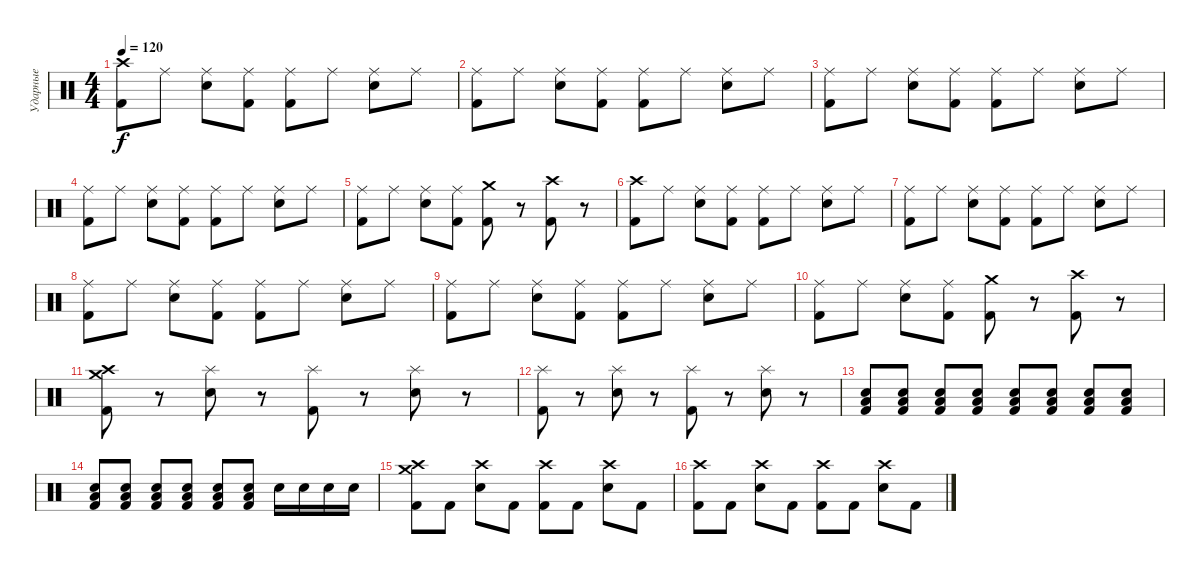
\track ("Ударные" "Ударные") {instrument percussion}
\staff {score}
\articulation defaults
\ts (4 4)
\tempo 120
\clef neutral
\ks c
("Crash high (hit)" "Kick (hit) 2").8{dy f} "Ride (middle)".8 ("Ride (middle)" "Electric Snare (hit)").8 ("Ride (middle)" "Kick (hit) 2").8 ("Ride (middle)" "Kick (hit) 2").8 "Ride (middle)".8 ("Ride (middle)" "Electric Snare (hit)").8 "Ride (middle)".8 |
("Ride (middle)" "Kick (hit) 2").8 "Ride (middle)".8 ("Ride (middle)" "Electric Snare (hit)").8 ("Ride (middle)" "Kick (hit) 2").8 ("Ride (middle)" "Kick (hit) 2").8 "Ride (middle)".8 ("Ride (middle)" "Electric Snare (hit)").8 "Ride (middle)".8 |
("Ride (middle)" "Kick (hit) 2").8 "Ride (middle)".8 ("Ride (middle)" "Electric Snare (hit)").8 ("Ride (middle)" "Kick (hit) 2").8 ("Ride (middle)" "Kick (hit) 2").8 "Ride (middle)".8 ("Ride (middle)" "Electric Snare (hit)").8 "Ride (middle)".8 |
("Ride (middle)" "Kick (hit) 2").8 "Ride (middle)".8 ("Ride (middle)" "Electric Snare (hit)").8 ("Ride (middle)" "Kick (hit) 2").8 ("Ride (middle)" "Kick (hit) 2").8 "Ride (middle)".8 ("Ride (middle)" "Electric Snare (hit)").8 "Ride (middle)".8 |
("Ride (middle)" "Kick (hit) 2").8 "Ride (middle)".8 ("Ride (middle)" "Electric Snare (hit)").8 ("Ride (middle)" "Kick (hit) 2").8 ("Crash medium (hit)" "Kick (hit) 2").8 r.8 ("Crash high (hit)" "Kick (hit) 2").8 r.8 |
("Crash high (hit)" "Kick (hit) 2").8 "Ride (middle)".8 ("Ride (middle)" "Electric Snare (hit)").8 ("Ride (middle)" "Kick (hit) 2").8 ("Ride (middle)" "Kick (hit) 2").8 "Ride (middle)".8 ("Ride (middle)" "Electric Snare (hit)").8 "Ride (middle)".8 |
("Ride (middle)" "Kick (hit) 2").8 "Ride (middle)".8 ("Ride (middle)" "Electric Snare (hit)").8 ("Ride (middle)" "Kick (hit) 2").8 ("Ride (middle)" "Kick (hit) 2").8 "Ride (middle)".8 ("Ride (middle)" "Electric Snare (hit)").8 "Ride (middle)".8 |
("Ride (middle)" "Kick (hit) 2").8 "Ride (middle)".8 ("Ride (middle)" "Electric Snare (hit)").8 ("Ride (middle)" "Kick (hit) 2").8 ("Ride (middle)" "Kick (hit) 2").8 "Ride (middle)".8 ("Ride (middle)" "Electric Snare (hit)").8 "Ride (middle)".8 |
("Ride (middle)" "Kick (hit) 2").8 "Ride (middle)".8 ("Ride (middle)" "Electric Snare (hit)").8 ("Ride (middle)" "Kick (hit) 2").8 ("Ride (middle)" "Kick (hit) 2").8 "Ride (middle)".8 ("Ride (middle)" "Electric Snare (hit)").8 "Ride (middle)".8 |
("Ride (middle)" "Kick (hit) 2").8 "Ride (middle)".8 ("Ride (middle)" "Electric Snare (hit)").8 ("Ride (middle)" "Kick (hit) 2").8 ("Crash medium (hit)" "Kick (hit) 2").8 r.8 ("Crash high (hit)" "Kick (hit) 2").8 r.8 |
("Crash medium (hit)" "Crash high (hit)" "Kick (hit) 2").8 r.8 ("Splash (hit)" "Electric Snare (hit)").8 r.8 ("Splash (hit)" "Kick (hit) 2").8 r.8 ("Splash (hit)" "Electric Snare (hit)").8 r.8 |
("Splash (hit)" "Kick (hit) 2").8 r.8 ("Splash (hit)" "Electric Snare (hit)").8 r.8 ("Splash (hit)" "Kick (hit) 2").8 r.8 ("Splash (hit)" "Electric Snare (hit)").8 r.8 |
("Low Tom (hit)" "Electric Snare (hit)" "Kick (hit) 2").8 ("Low Tom (hit)" "Electric Snare (hit)" "Kick (hit) 2").8 ("Low Tom (hit)" "Electric Snare (hit)" "Kick (hit) 2").8 ("Low Tom (hit)" "Electric Snare (hit)" "Kick (hit) 2").8 ("Low Tom (hit)" "Electric Snare (hit)" "Kick (hit) 2").8 ("Low Tom (hit)" "Electric Snare (hit)" "Kick (hit) 2").8 ("Low Tom (hit)" "Electric Snare (hit)" "Kick (hit) 2").8 ("Low Tom (hit)" "Electric Snare (hit)" "Kick (hit) 2").8 |
("Low Tom (hit)" "Electric Snare (hit)" "Kick (hit) 2").8 ("Low Tom (hit)" "Electric Snare (hit)" "Kick (hit) 2").8 ("Low Tom (hit)" "Electric Snare (hit)" "Kick (hit) 2").8 ("Low Tom (hit)" "Electric Snare (hit)" "Kick (hit) 2").8 ("Low Tom (hit)" "Electric Snare (hit)" "Kick (hit) 2").8 ("Low Tom (hit)" "Electric Snare (hit)" "Kick (hit) 2").8 "Electric Snare (hit)".16 "Electric Snare (hit)".16 "Electric Snare (hit)".16 "Electric Snare (hit)".16 |
("Crash medium (hit)" "Crash high (hit)" "Kick (hit) 2").8 "Kick (hit) 2".8 ("Crash high (hit)" "Electric Snare (hit)").8 "Kick (hit) 2".8 ("Crash high (hit)" "Kick (hit) 2").8 "Kick (hit) 2".8 ("Crash high (hit)" "Electric Snare (hit)").8 "Kick (hit) 2".8 |
("Crash high (hit)" "Kick (hit) 2").8 "Kick (hit) 2".8 ("Crash high (hit)" "Electric Snare (hit)").8 "Kick (hit) 2".8 ("Crash high (hit)" "Kick (hit) 2").8 "Kick (hit) 2".8 ("Crash high (hit)" "Electric Snare (hit)").8 "Kick (hit) 2".8
